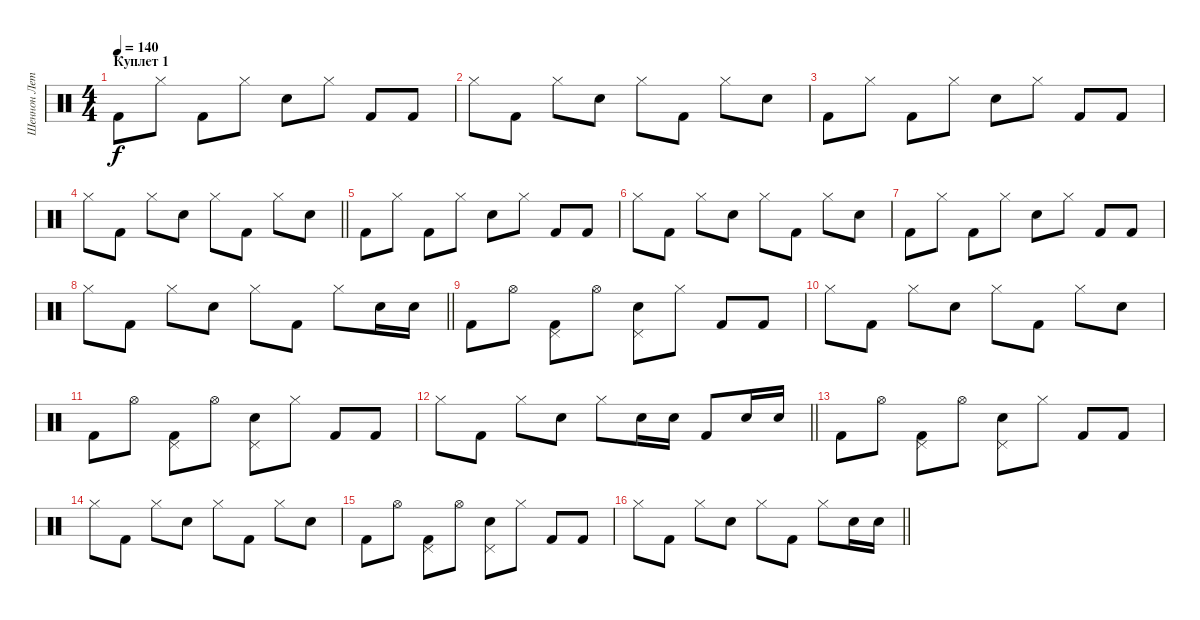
\track ("Шеннон Лето" "Шеннон Лет") {instrument percussion}
\staff {score}
\articulation defaults
\ts (4 4)
\section ("" "Куплет 1")
\tempo 140
\clef neutral
\ks c "Kick (hit) 2".8{dy f} "Hi-Hat (closed)".8 "Kick (hit) 2".8 "Hi-Hat (closed)".8 "Electric Snare (hit)".8 "Hi-Hat (closed)".8 "Kick (hit) 2".8 "Kick (hit) 2".8
|
"Hi-Hat (closed)".8 "Kick (hit) 2".8 "Hi-Hat (closed)".8 "Electric Snare (hit)".8 "Hi-Hat (closed)".8 "Kick (hit) 2".8 "Hi-Hat (closed)".8 "Electric Snare (hit)".8 |
"Kick (hit) 2".8 "Hi-Hat (closed)".8 "Kick (hit) 2".8 "Hi-Hat (closed)".8 "Electric Snare (hit)".8 "Hi-Hat (closed)".8 "Kick (hit) 2".8 "Kick (hit) 2".8 |
\barLineRight lightlight "Hi-Hat (closed)".8 "Kick (hit) 2".8 "Hi-Hat (closed)".8 "Electric Snare (hit)".8 "Hi-Hat (closed)".8 "Kick (hit) 2".8 "Hi-Hat (closed)".8 "Electric Snare (hit)".8
|
"Kick (hit) 2".8 "Hi-Hat (closed)".8 "Kick (hit) 2".8 "Hi-Hat (closed)".8 "Electric Snare (hit)".8 "Hi-Hat (closed)".8 "Kick (hit) 2".8 "Kick (hit) 2".8 |
"Hi-Hat (closed)".8 "Kick (hit) 2".8 "Hi-Hat (closed)".8 "Electric Snare (hit)".8 "Hi-Hat (closed)".8 "Kick (hit) 2".8 "Hi-Hat (closed)".8 "Electric Snare (hit)".8 |
"Kick (hit) 2".8 "Hi-Hat (closed)".8 "Kick (hit) 2".8 "Hi-Hat (closed)".8 "Electric Snare (hit)".8 "Hi-Hat (closed)".8 "Kick (hit) 2".8 "Kick (hit) 2".8 |
\barLineRight lightlight "Hi-Hat (closed)".8 "Kick (hit) 2".8 "Hi-Hat (closed)".8 "Electric Snare (hit)".8 "Hi-Hat (closed)".8 "Kick (hit) 2".8 "Hi-Hat (closed)".8 "Electric Snare (hit)".16 "Electric Snare (hit)".16
|
"Kick (hit) 2".8 "Hi-Hat (open)".8 ("Pedal Hi-Hat (hit)" "Kick (hit) 2").8 "Hi-Hat (open)".8 ("Pedal Hi-Hat (hit)" "Electric Snare (hit)").8 "Hi-Hat (closed)".8 "Kick (hit) 2".8 "Kick (hit) 2".8 |
"Hi-Hat (closed)".8 "Kick (hit) 2".8 "Hi-Hat (closed)".8 "Electric Snare (hit)".8 "Hi-Hat (closed)".8 "Kick (hit) 2".8 "Hi-Hat (closed)".8 "Electric Snare (hit)".8 |
"Kick (hit) 2".8 "Hi-Hat (open)".8 ("Pedal Hi-Hat (hit)" "Kick (hit) 2").8 "Hi-Hat (open)".8 ("Pedal Hi-Hat (hit)" "Electric Snare (hit)").8 "Hi-Hat (closed)".8 "Kick (hit) 2".8 "Kick (hit) 2".8 |
\barLineRight lightlight "Hi-Hat (closed)".8 "Kick (hit) 2".8 "Hi-Hat (closed)".8 "Electric Snare (hit)".8 "Hi-Hat (closed)".8 "Electric Snare (hit)".16 "Electric Snare (hit)".16 "Kick (hit) 2".8 "Electric Snare (hit)".16 "Electric Snare (hit)".16
|
"Kick (hit) 2".8 "Hi-Hat (open)".8 ("Pedal Hi-Hat (hit)" "Kick (hit) 2").8 "Hi-Hat (open)".8 ("Pedal Hi-Hat (hit)" "Electric Snare (hit)").8 "Hi-Hat (closed)".8 "Kick (hit) 2".8 "Kick (hit) 2".8 |
"Hi-Hat (closed)".8 "Kick (hit) 2".8 "Hi-Hat (closed)".8 "Electric Snare (hit)".8 "Hi-Hat (closed)".8 "Kick (hit) 2".8 "Hi-Hat (closed)".8 "Electric Snare (hit)".8 |
"Kick (hit) 2".8 "Hi-Hat (open)".8 ("Pedal Hi-Hat (hit)" "Kick (hit) 2").8 "Hi-Hat (open)".8 ("Pedal Hi-Hat (hit)" "Electric Snare (hit)").8 "Hi-Hat (closed)".8 "Kick (hit) 2".8 "Kick (hit) 2".8 |
\barLineRight lightlight "Hi-Hat (closed)".8 "Kick (hit) 2".8 "Hi-Hat (closed)".8 "Electric Snare (hit)".8 "Hi-Hat (closed)".8 "Kick (hit) 2".8 "Hi-Hat (closed)".8 "Electric Snare (hit)".16 "Electric Snare (hit)".16
